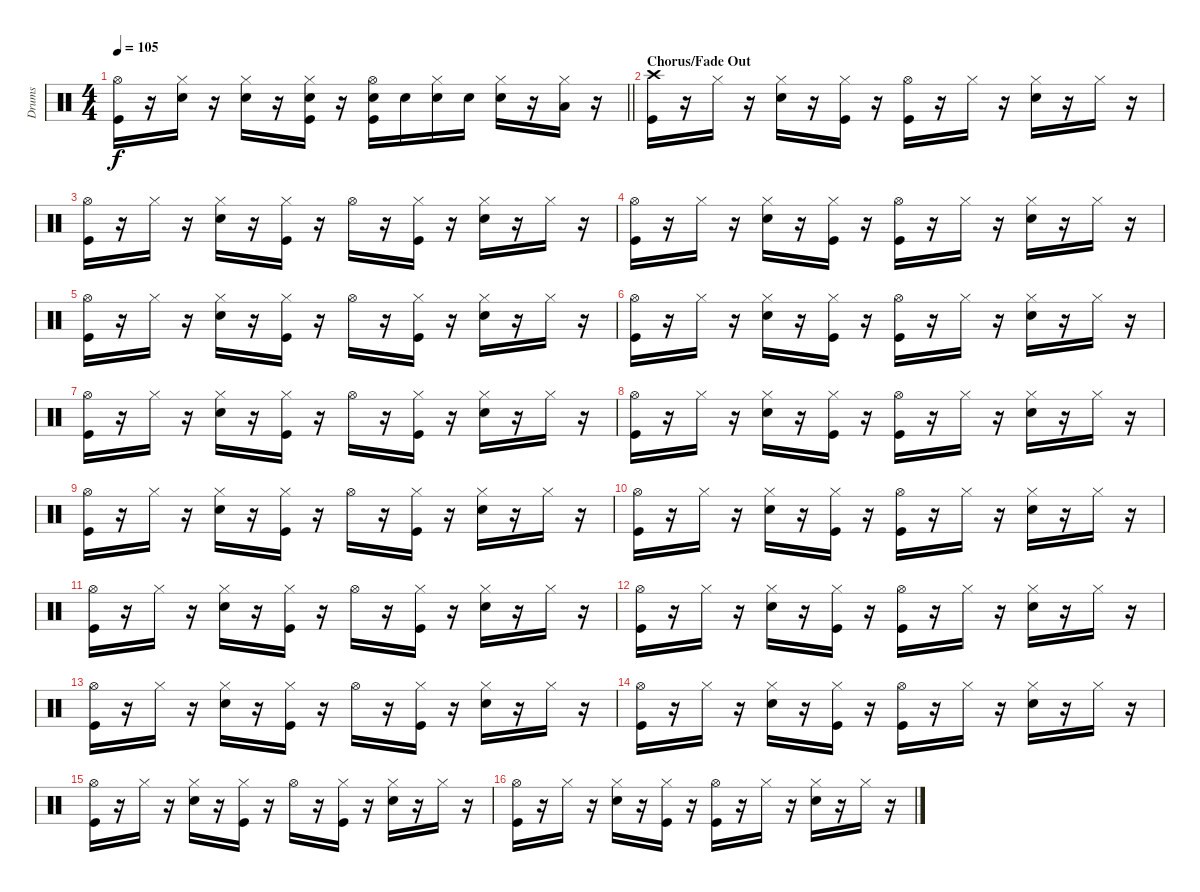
\track ("Drums" "Drums") {instrument percussion}
\staff {score}
\articulation defaults
\ts (4 4)
\tempo 105
\clef neutral
\barLineRight lightlight
\ks c
("Hi-Hat (open)" "Kick (hit)").16{dy f} r.16 ("Hi-Hat (closed)" "Snare (hit) 2").16 r.16 ("Hi-Hat (closed)" "Snare (hit) 2").16 r.16 ("Hi-Hat (closed)" "Snare (hit) 2" "Kick (hit)").16 r.16 ("Hi-Hat (open)" "Snare (hit) 2" "Kick (hit)").16 "Snare (hit) 2".16 ("Hi-Hat (closed)" "Snare (hit) 2").16 "Snare (hit) 2".16 ("Hi-Hat (closed)" "Snare (hit) 2").16 r.16 ("Hi-Hat (closed)" "Low Tom (hit)").16 r.16 |
\section ("" "Chorus/Fade Out")
("Crash high (hit)" "Kick (hit)").16 r.16 "Hi-Hat (closed)".16 r.16 ("Hi-Hat (closed)" "Snare (hit) 2").16 r.16 ("Hi-Hat (closed)" "Kick (hit)").16 r.16 ("Hi-Hat (open)" "Kick (hit)").16 r.16 "Hi-Hat (closed)".16 r.16 ("Hi-Hat (closed)" "Snare (hit) 2").16 r.16 "Hi-Hat (closed)".16 r.16 |
("Hi-Hat (open)" "Kick (hit)").16 r.16 "Hi-Hat (closed)".16 r.16 ("Hi-Hat (closed)" "Snare (hit) 2").16 r.16 ("Hi-Hat (closed)" "Kick (hit)").16 r.16 "Hi-Hat (open)".16 r.16 ("Hi-Hat (closed)" "Kick (hit)").16 r.16 ("Hi-Hat (closed)" "Snare (hit) 2").16 r.16 "Hi-Hat (closed)".16 r.16 |
("Hi-Hat (open)" "Kick (hit)").16 r.16 "Hi-Hat (closed)".16 r.16 ("Hi-Hat (closed)" "Snare (hit) 2").16 r.16 ("Hi-Hat (closed)" "Kick (hit)").16 r.16 ("Hi-Hat (open)" "Kick (hit)").16 r.16 "Hi-Hat (closed)".16 r.16 ("Hi-Hat (closed)" "Snare (hit) 2").16 r.16 "Hi-Hat (closed)".16 r.16 |
("Hi-Hat (open)" "Kick (hit)").16 r.16 "Hi-Hat (closed)".16 r.16 ("Hi-Hat (closed)" "Snare (hit) 2").16 r.16 ("Hi-Hat (closed)" "Kick (hit)").16 r.16 "Hi-Hat (open)".16 r.16 ("Hi-Hat (closed)" "Kick (hit)").16 r.16 ("Hi-Hat (closed)" "Snare (hit) 2").16 r.16 "Hi-Hat (closed)".16 r.16 |
("Hi-Hat (open)" "Kick (hit)").16 r.16 "Hi-Hat (closed)".16 r.16 ("Hi-Hat (closed)" "Snare (hit) 2").16 r.16 ("Hi-Hat (closed)" "Kick (hit)").16 r.16 ("Hi-Hat (open)" "Kick (hit)").16 r.16 "Hi-Hat (closed)".16 r.16 ("Hi-Hat (closed)" "Snare (hit) 2").16 r.16 "Hi-Hat (closed)".16 r.16 |
("Hi-Hat (open)" "Kick (hit)").16 r.16 "Hi-Hat (closed)".16 r.16 ("Hi-Hat (closed)" "Snare (hit) 2").16 r.16 ("Hi-Hat (closed)" "Kick (hit)").16 r.16 "Hi-Hat (open)".16 r.16 ("Hi-Hat (closed)" "Kick (hit)").16 r.16 ("Hi-Hat (closed)" "Snare (hit) 2").16 r.16 "Hi-Hat (closed)".16 r.16 |
("Hi-Hat (open)" "Kick (hit)").16 r.16 "Hi-Hat (closed)".16 r.16 ("Hi-Hat (closed)" "Snare (hit) 2").16 r.16 ("Hi-Hat (closed)" "Kick (hit)").16 r.16 ("Hi-Hat (open)" "Kick (hit)").16 r.16 "Hi-Hat (closed)".16 r.16 ("Hi-Hat (closed)" "Snare (hit) 2").16 r.16 "Hi-Hat (closed)".16 r.16 |
("Hi-Hat (open)" "Kick (hit)").16 r.16 "Hi-Hat (closed)".16 r.16 ("Hi-Hat (closed)" "Snare (hit) 2").16 r.16 ("Hi-Hat (closed)" "Kick (hit)").16 r.16 "Hi-Hat (open)".16 r.16 ("Hi-Hat (closed)" "Kick (hit)").16 r.16 ("Hi-Hat (closed)" "Snare (hit) 2").16 r.16 "Hi-Hat (closed)".16 r.16 |
("Hi-Hat (open)" "Kick (hit)").16 r.16 "Hi-Hat (closed)".16 r.16 ("Hi-Hat (closed)" "Snare (hit) 2").16 r.16 ("Hi-Hat (closed)" "Kick (hit)").16 r.16 ("Hi-Hat (open)" "Kick (hit)").16 r.16 "Hi-Hat (closed)".16 r.16 ("Hi-Hat (closed)" "Snare (hit) 2").16 r.16 "Hi-Hat (closed)".16 r.16 |
("Hi-Hat (open)" "Kick (hit)").16 r.16 "Hi-Hat (closed)".16 r.16 ("Hi-Hat (closed)" "Snare (hit) 2").16 r.16 ("Hi-Hat (closed)" "Kick (hit)").16 r.16 "Hi-Hat (open)".16 r.16 ("Hi-Hat (closed)" "Kick (hit)").16 r.16 ("Hi-Hat (closed)" "Snare (hit) 2").16 r.16 "Hi-Hat (closed)".16 r.16 |
("Hi-Hat (open)" "Kick (hit)").16 r.16 "Hi-Hat (closed)".16 r.16 ("Hi-Hat (closed)" "Snare (hit) 2").16 r.16 ("Hi-Hat (closed)" "Kick (hit)").16 r.16 ("Hi-Hat (open)" "Kick (hit)").16 r.16 "Hi-Hat (closed)".16 r.16 ("Hi-Hat (closed)" "Snare (hit) 2").16 r.16 "Hi-Hat (closed)".16 r.16 |
("Hi-Hat (open)" "Kick (hit)").16 r.16 "Hi-Hat (closed)".16 r.16 ("Hi-Hat (closed)" "Snare (hit) 2").16 r.16 ("Hi-Hat (closed)" "Kick (hit)").16 r.16 "Hi-Hat (open)".16 r.16 ("Hi-Hat (closed)" "Kick (hit)").16 r.16 ("Hi-Hat (closed)" "Snare (hit) 2").16 r.16 "Hi-Hat (closed)".16 r.16 |
("Hi-Hat (open)" "Kick (hit)").16 r.16 "Hi-Hat (closed)".16 r.16 ("Hi-Hat (closed)" "Snare (hit) 2").16 r.16 ("Hi-Hat (closed)" "Kick (hit)").16 r.16 ("Hi-Hat (open)" "Kick (hit)").16 r.16 "Hi-Hat (closed)".16 r.16 ("Hi-Hat (closed)" "Snare (hit) 2").16 r.16 "Hi-Hat (closed)".16 r.16 |
("Hi-Hat (open)" "Kick (hit)").16 r.16 "Hi-Hat (closed)".16 r.16 ("Hi-Hat (closed)" "Snare (hit) 2").16 r.16 ("Hi-Hat (closed)" "Kick (hit)").16 r.16 "Hi-Hat (open)".16 r.16 ("Hi-Hat (closed)" "Kick (hit)").16 r.16 ("Hi-Hat (closed)" "Snare (hit) 2").16 r.16 "Hi-Hat (closed)".16 r.16 |
("Hi-Hat (open)" "Kick (hit)").16 r.16 "Hi-Hat (closed)".16 r.16 ("Hi-Hat (closed)" "Snare (hit) 2").16 r.16 ("Hi-Hat (closed)" "Kick (hit)").16 r.16 ("Hi-Hat (open)" "Kick (hit)").16 r.16 "Hi-Hat (closed)".16 r.16 ("Hi-Hat (closed)" "Snare (hit) 2").16 r.16 "Hi-Hat (closed)".16 r.16
